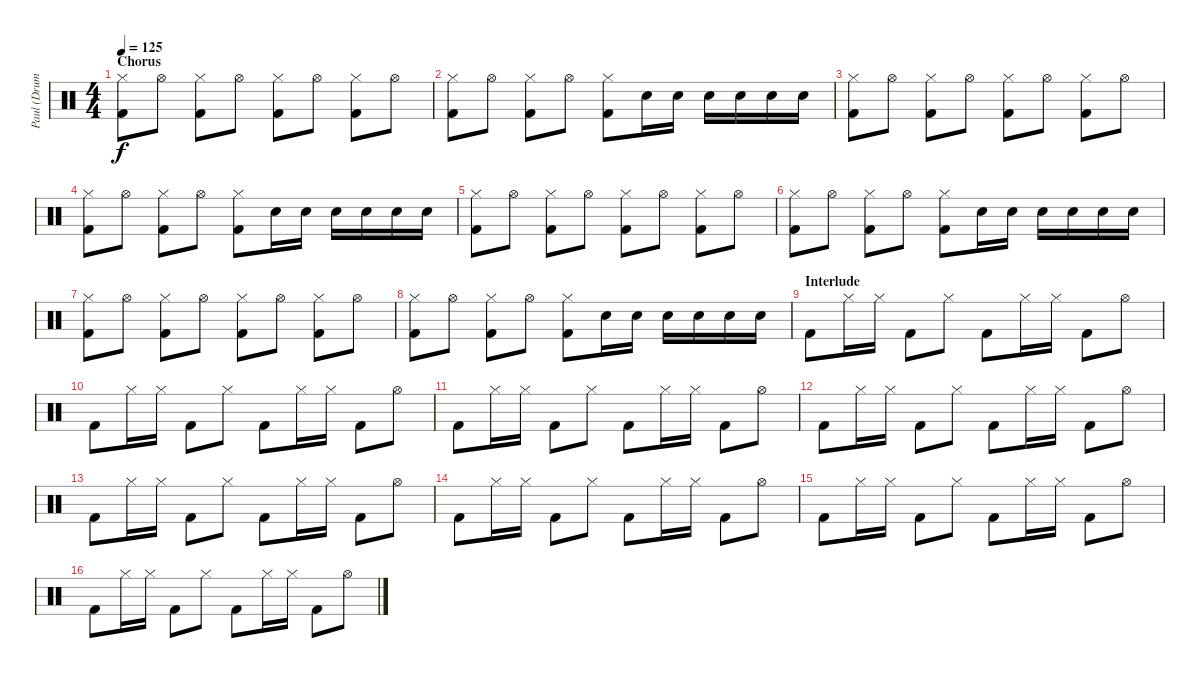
\track ("Paul (Drums)" "Paul (Drum") {instrument percussion}
\staff {score}
\articulation defaults
\ts (4 4)
\section ("" "Chorus")
\tempo 125
\clef neutral
\ks c
("Hi-Hat (closed)" "Kick (hit) 2").8{dy f} "Hi-Hat (open)".8 ("Hi-Hat (closed)" "Kick (hit) 2").8 "Hi-Hat (open)".8 ("Hi-Hat (closed)" "Kick (hit) 2").8 "Hi-Hat (open)".8 ("Hi-Hat (closed)" "Kick (hit) 2").8 "Hi-Hat (open)".8 |
("Hi-Hat (closed)" "Kick (hit) 2").8 "Hi-Hat (open)".8 ("Hi-Hat (closed)" "Kick (hit) 2").8 "Hi-Hat (open)".8 ("Hi-Hat (closed)" "Kick (hit) 2").8 "Snare (hit) 2".16 "Snare (hit) 2".16 "Snare (hit) 2".16 "Snare (hit) 2".16 "Snare (hit) 2".16 "Snare (hit) 2".16 |
("Hi-Hat (closed)" "Kick (hit) 2").8 "Hi-Hat (open)".8 ("Hi-Hat (closed)" "Kick (hit) 2").8 "Hi-Hat (open)".8 ("Hi-Hat (closed)" "Kick (hit) 2").8 "Hi-Hat (open)".8 ("Hi-Hat (closed)" "Kick (hit) 2").8 "Hi-Hat (open)".8 |
("Hi-Hat (closed)" "Kick (hit) 2").8 "Hi-Hat (open)".8 ("Hi-Hat (closed)" "Kick (hit) 2").8 "Hi-Hat (open)".8 ("Hi-Hat (closed)" "Kick (hit) 2").8 "Snare (hit) 2".16 "Snare (hit) 2".16 "Snare (hit) 2".16 "Snare (hit) 2".16 "Snare (hit) 2".16 "Snare (hit) 2".16 |
("Hi-Hat (closed)" "Kick (hit) 2").8 "Hi-Hat (open)".8 ("Hi-Hat (closed)" "Kick (hit) 2").8 "Hi-Hat (open)".8 ("Hi-Hat (closed)" "Kick (hit) 2").8 "Hi-Hat (open)".8 ("Hi-Hat (closed)" "Kick (hit) 2").8 "Hi-Hat (open)".8 |
("Hi-Hat (closed)" "Kick (hit) 2").8 "Hi-Hat (open)".8 ("Hi-Hat (closed)" "Kick (hit) 2").8 "Hi-Hat (open)".8 ("Hi-Hat (closed)" "Kick (hit) 2").8 "Snare (hit) 2".16 "Snare (hit) 2".16 "Snare (hit) 2".16 "Snare (hit) 2".16 "Snare (hit) 2".16 "Snare (hit) 2".16 |
("Hi-Hat (closed)" "Kick (hit) 2").8 "Hi-Hat (open)".8 ("Hi-Hat (closed)" "Kick (hit) 2").8 "Hi-Hat (open)".8 ("Hi-Hat (closed)" "Kick (hit) 2").8 "Hi-Hat (open)".8 ("Hi-Hat (closed)" "Kick (hit) 2").8 "Hi-Hat (open)".8 |
("Hi-Hat (closed)" "Kick (hit) 2").8 "Hi-Hat (open)".8 ("Hi-Hat (closed)" "Kick (hit) 2").8 "Hi-Hat (open)".8 ("Hi-Hat (closed)" "Kick (hit) 2").8 "Snare (hit) 2".16 "Snare (hit) 2".16 "Snare (hit) 2".16 "Snare (hit) 2".16 "Snare (hit) 2".16 "Snare (hit) 2".16 |
\section ("" "Interlude")
"Kick (hit) 2".8 "Hi-Hat (closed)".16 "Hi-Hat (closed)".16 "Kick (hit) 2".8 "Hi-Hat (closed)".8 "Kick (hit) 2".8 "Hi-Hat (closed)".16 "Hi-Hat (closed)".16 "Kick (hit) 2".8 "Hi-Hat (open)".8 |
"Kick (hit) 2".8 "Hi-Hat (closed)".16 "Hi-Hat (closed)".16 "Kick (hit) 2".8 "Hi-Hat (closed)".8 "Kick (hit) 2".8 "Hi-Hat (closed)".16 "Hi-Hat (closed)".16 "Kick (hit) 2".8 "Hi-Hat (open)".8 |
"Kick (hit) 2".8 "Hi-Hat (closed)".16 "Hi-Hat (closed)".16 "Kick (hit) 2".8 "Hi-Hat (closed)".8 "Kick (hit) 2".8 "Hi-Hat (closed)".16 "Hi-Hat (closed)".16 "Kick (hit) 2".8 "Hi-Hat (open)".8 |
"Kick (hit) 2".8 "Hi-Hat (closed)".16 "Hi-Hat (closed)".16 "Kick (hit) 2".8 "Hi-Hat (closed)".8 "Kick (hit) 2".8 "Hi-Hat (closed)".16 "Hi-Hat (closed)".16 "Kick (hit) 2".8 "Hi-Hat (open)".8 |
"Kick (hit) 2".8 "Hi-Hat (closed)".16 "Hi-Hat (closed)".16 "Kick (hit) 2".8 "Hi-Hat (closed)".8 "Kick (hit) 2".8 "Hi-Hat (closed)".16 "Hi-Hat (closed)".16 "Kick (hit) 2".8 "Hi-Hat (open)".8 |
"Kick (hit) 2".8 "Hi-Hat (closed)".16 "Hi-Hat (closed)".16 "Kick (hit) 2".8 "Hi-Hat (closed)".8 "Kick (hit) 2".8 "Hi-Hat (closed)".16 "Hi-Hat (closed)".16 "Kick (hit) 2".8 "Hi-Hat (open)".8 |
"Kick (hit) 2".8 "Hi-Hat (closed)".16 "Hi-Hat (closed)".16 "Kick (hit) 2".8 "Hi-Hat (closed)".8 "Kick (hit) 2".8 "Hi-Hat (closed)".16 "Hi-Hat (closed)".16 "Kick (hit) 2".8 "Hi-Hat (open)".8 |
"Kick (hit) 2".8 "Hi-Hat (closed)".16 "Hi-Hat (closed)".16 "Kick (hit) 2".8 "Hi-Hat (closed)".8 "Kick (hit) 2".8 "Hi-Hat (closed)".16 "Hi-Hat (closed)".16 "Kick (hit) 2".8 "Hi-Hat (open)".8
